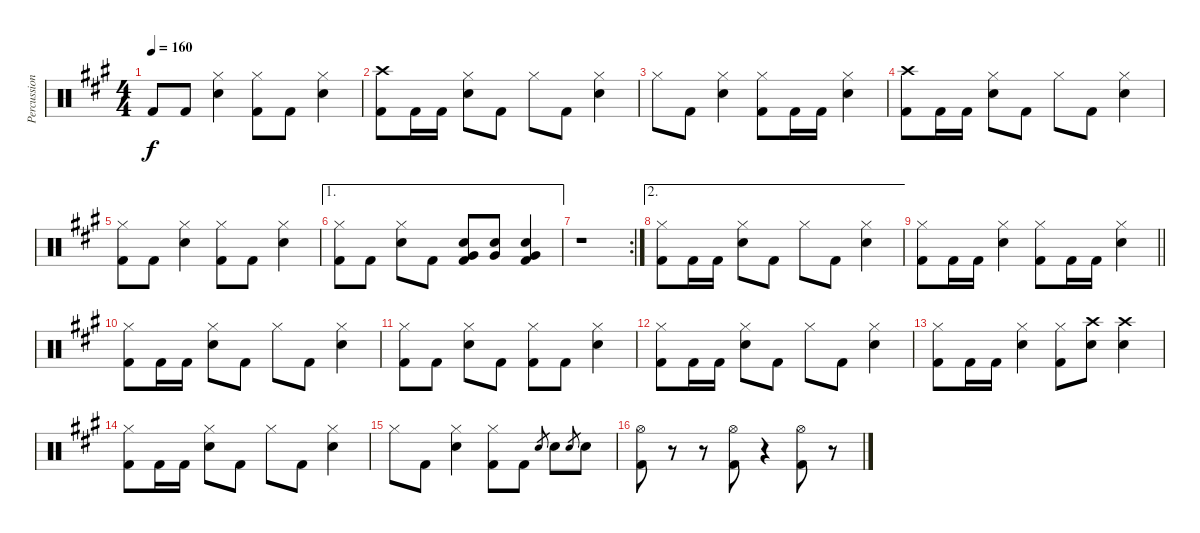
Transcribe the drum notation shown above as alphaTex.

\track ("Percussions" "Percussion") {instrument percussion}
\staff {score}
\articulation defaults
\ts (4 4)
\tempo 160
\clef neutral
\ks a "Kick (hit) 2".8{dy f} "Kick (hit) 2".8
("Hi-Hat (closed)" "Snare (hit) 2").4 ("Hi-Hat (closed)" "Kick (hit) 2").8 "Kick (hit) 2".8 ("Hi-Hat (closed)" "Snare (hit) 2").4 |
("Kick (hit) 2" "Crash high (hit)").8 "Kick (hit) 2".16 "Kick (hit) 2".16 ("Hi-Hat (closed)" "Snare (hit) 2").8 "Kick (hit) 2".8 "Hi-Hat (closed)".8 "Kick (hit) 2".8 ("Hi-Hat (closed)" "Snare (hit) 2").4 |
"Hi-Hat (closed)".8 "Kick (hit) 2".8 ("Hi-Hat (closed)" "Snare (hit) 2").4 ("Hi-Hat (closed)" "Kick (hit) 2").8 "Kick (hit) 2".16 "Kick (hit) 2".16 ("Hi-Hat (closed)" "Snare (hit) 2").4 |
("Kick (hit) 2" "Crash high (hit)").8 "Kick (hit) 2".16 "Kick (hit) 2".16 ("Hi-Hat (closed)" "Snare (hit) 2").8 "Kick (hit) 2".8 "Hi-Hat (closed)".8 "Kick (hit) 2".8 ("Hi-Hat (closed)" "Snare (hit) 2").4 |
("Hi-Hat (closed)" "Kick (hit) 2").8 "Kick (hit) 2".8 ("Hi-Hat (closed)" "Snare (hit) 2").4 ("Hi-Hat (closed)" "Kick (hit) 2").8 "Kick (hit) 2".8 ("Hi-Hat (closed)" "Snare (hit) 2").4 |
\ae 1
("Hi-Hat (closed)" "Kick (hit) 2").8 "Kick (hit) 2".8 ("Hi-Hat (closed)" "Snare (hit) 2").8 "Kick (hit) 2".8 ("Snare (hit) 2" "Kick (hit) 2" "Very Low Tom (hit)").8 ("Snare (hit) 2" "Very Low Tom (hit)").8 ("Snare (hit) 2" "Kick (hit) 2" "Very Low Tom (hit)").4 |
\rc 2
r.1 |
\ae 2
("Hi-Hat (closed)" "Kick (hit) 2").8 "Kick (hit) 2".16 "Kick (hit) 2".16 ("Hi-Hat (closed)" "Snare (hit) 2").8 "Kick (hit) 2".8 "Hi-Hat (closed)".8 "Kick (hit) 2".8 ("Hi-Hat (closed)" "Snare (hit) 2").4 |
\barLineRight lightlight
("Hi-Hat (closed)" "Kick (hit) 2").8 "Kick (hit) 2".16 "Kick (hit) 2".16 ("Hi-Hat (closed)" "Snare (hit) 2").4 ("Hi-Hat (closed)" "Kick (hit) 2").8 "Kick (hit) 2".16 "Kick (hit) 2".16 ("Hi-Hat (closed)" "Snare (hit) 2").4 |
("Hi-Hat (closed)" "Kick (hit) 2").8 "Kick (hit) 2".16 "Kick (hit) 2".16 ("Hi-Hat (closed)" "Snare (hit) 2").8 "Kick (hit) 2".8 "Hi-Hat (closed)".8 "Kick (hit) 2".8 ("Hi-Hat (closed)" "Snare (hit) 2").4 |
("Hi-Hat (closed)" "Kick (hit) 2").8 "Kick (hit) 2".8 ("Hi-Hat (closed)" "Snare (hit) 2").8 "Kick (hit) 2".8 ("Hi-Hat (closed)" "Kick (hit) 2").8 "Kick (hit) 2".8 ("Hi-Hat (closed)" "Snare (hit) 2").4 |
("Hi-Hat (closed)" "Kick (hit) 2").8 "Kick (hit) 2".16 "Kick (hit) 2".16 ("Hi-Hat (closed)" "Snare (hit) 2").8 "Kick (hit) 2".8 "Hi-Hat (closed)".8 "Kick (hit) 2".8 ("Hi-Hat (closed)" "Snare (hit) 2").4 |
("Hi-Hat (closed)" "Kick (hit) 2").8 "Kick (hit) 2".16 "Kick (hit) 2".16 ("Hi-Hat (closed)" "Snare (hit) 2").4 ("Hi-Hat (closed)" "Kick (hit) 2").8 ("Snare (hit) 2" "Crash high (hit)").8 ("Snare (hit) 2" "Crash high (hit)").4 |
("Hi-Hat (closed)" "Kick (hit) 2").8 "Kick (hit) 2".16 "Kick (hit) 2".16 ("Hi-Hat (closed)" "Snare (hit) 2").8 "Kick (hit) 2".8 "Hi-Hat (closed)".8 "Kick (hit) 2".8 ("Hi-Hat (closed)" "Snare (hit) 2").4 |
"Hi-Hat (closed)".8 "Kick (hit) 2".8 ("Hi-Hat (closed)" "Snare (hit) 2").4 ("Hi-Hat (closed)" "Kick (hit) 2").8 "Kick (hit) 2".8 "Snare (hit) 2".8{gr} "Snare (hit) 2".8 "Snare (hit) 2".8{gr} "Snare (hit) 2".8 |
("Hi-Hat (open)" "Kick (hit) 2").8 r.8 r.8 ("Hi-Hat (open)" "Kick (hit) 2").8 r.4 ("Hi-Hat (open)" "Kick (hit) 2").8 r.8
